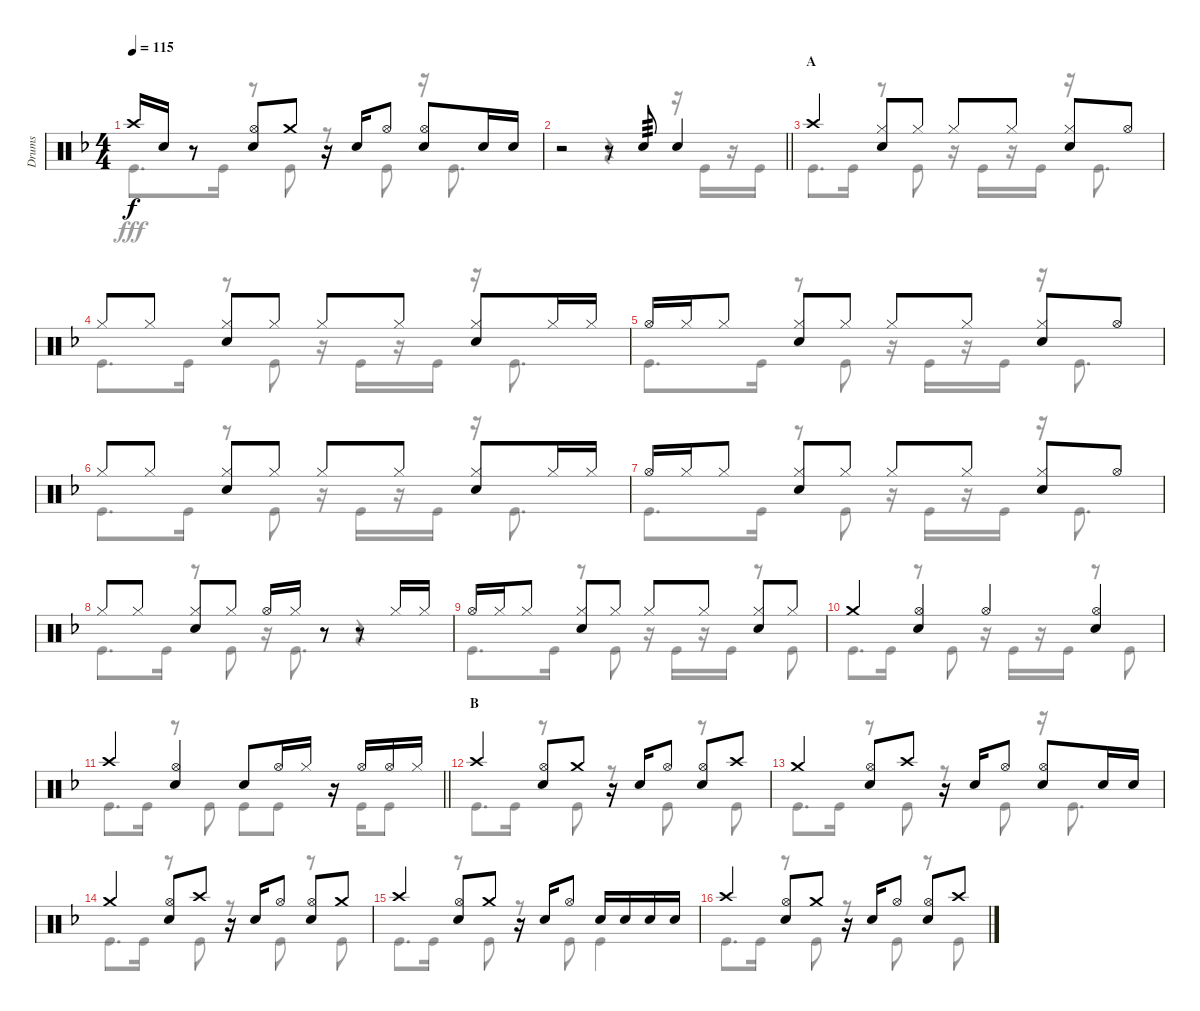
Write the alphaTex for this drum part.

\track ("Drums" "Drums") {instrument percussion}
\staff {score}
\articulation defaults
\voice
\ts (4 4)
\tempo 115
\clef neutral
\ks f "Crash high (hit)".16{dy f} "Snare (hit) 2".16
r.8 ("Hi-Hat (open)" "Snare (hit) 2").8 "Crash medium (hit)".8 r.16 "Snare (hit) 2".16 "Hi-Hat (open)".8 ("Hi-Hat (open)" "Snare (hit) 2").8 "Snare (hit) 2".16 "Snare (hit) 2".16 |
\barLineRight lightlight
r.2 r.8 "Snare (hit) 2".8{tp 3} "Snare (hit) 2".4 |
\section ("" "A")
"Crash high (hit)".4 ("Hi-Hat (closed)" "Snare (hit) 2").8 "Hi-Hat (closed)".8 "Hi-Hat (closed)".8 "Hi-Hat (closed)".8 ("Hi-Hat (closed)" "Snare (hit) 2").8 "Hi-Hat (open)".8 |
"Hi-Hat (closed)".8 "Hi-Hat (closed)".8 ("Hi-Hat (closed)" "Snare (hit) 2").8 "Hi-Hat (closed)".8 "Hi-Hat (closed)".8 "Hi-Hat (closed)".8 ("Hi-Hat (closed)" "Snare (hit) 2").8 "Hi-Hat (closed)".16 "Hi-Hat (closed)".16 |
"Hi-Hat (open)".16 "Hi-Hat (closed)".16 "Hi-Hat (closed)".8 ("Hi-Hat (closed)" "Snare (hit) 2").8 "Hi-Hat (closed)".8 "Hi-Hat (closed)".8 "Hi-Hat (closed)".8 ("Hi-Hat (closed)" "Snare (hit) 2").8 "Hi-Hat (open)".8 |
"Hi-Hat (closed)".8 "Hi-Hat (closed)".8 ("Hi-Hat (closed)" "Snare (hit) 2").8 "Hi-Hat (closed)".8 "Hi-Hat (closed)".8 "Hi-Hat (closed)".8 ("Hi-Hat (closed)" "Snare (hit) 2").8 "Hi-Hat (closed)".16 "Hi-Hat (closed)".16 |
"Hi-Hat (open)".16 "Hi-Hat (closed)".16 "Hi-Hat (closed)".8 ("Hi-Hat (closed)" "Snare (hit) 2").8 "Hi-Hat (closed)".8 "Hi-Hat (closed)".8 "Hi-Hat (closed)".8 ("Hi-Hat (closed)" "Snare (hit) 2").8 "Hi-Hat (open)".8 |
"Hi-Hat (closed)".8 "Hi-Hat (closed)".8 ("Hi-Hat (closed)" "Snare (hit) 2").8 "Hi-Hat (closed)".8 "Hi-Hat (open)".16 "Hi-Hat (closed)".16 r.8 r.8 "Hi-Hat (closed)".16 "Hi-Hat (closed)".16 |
"Hi-Hat (open)".16 "Hi-Hat (closed)".16 "Hi-Hat (closed)".8 ("Hi-Hat (closed)" "Snare (hit) 2").8 "Hi-Hat (closed)".8 "Hi-Hat (closed)".8 "Hi-Hat (closed)".8 ("Hi-Hat (closed)" "Snare (hit) 2").8 "Hi-Hat (closed)".8 |
"Crash medium (hit)".4 ("Hi-Hat (open)" "Snare (hit) 2").4 "Hi-Hat (open)".4 ("Hi-Hat (open)" "Snare (hit) 2").4 |
\barLineRight lightlight "Crash high (hit)".4
("Hi-Hat (open)" "Snare (hit) 2").4 "Snare (hit) 2".8 "Hi-Hat (open)".16 "Hi-Hat (closed)".16 r.16 "Hi-Hat (open)".16 "Hi-Hat (open)".16 "Hi-Hat (closed)".16 |
\section ("" "B")
"Crash high (hit)".4 ("Hi-Hat (open)" "Snare (hit) 2").8 "Crash medium (hit)".8 r.16 "Snare (hit) 2".16 "Hi-Hat (open)".8 ("Hi-Hat (open)" "Snare (hit) 2").8 "Crash high (hit)".8 |
"Crash medium (hit)".4 ("Hi-Hat (open)" "Snare (hit) 2").8 "Crash high (hit)".8 r.16 "Snare (hit) 2".16 "Hi-Hat (open)".8 ("Hi-Hat (open)" "Snare (hit) 2").8 "Snare (hit) 2".16 "Snare (hit) 2".16 |
"Crash medium (hit)".4 ("Hi-Hat (open)" "Snare (hit) 2").8 "Crash high (hit)".8 r.16 "Snare (hit) 2".16 "Hi-Hat (open)".8 ("Hi-Hat (open)" "Snare (hit) 2").8 "Crash medium (hit)".8 |
"Crash high (hit)".4 ("Hi-Hat (open)" "Snare (hit) 2").8 "Crash medium (hit)".8 r.16 "Snare (hit) 2".16 "Hi-Hat (open)".8 "Snare (hit) 2".16 "Snare (hit) 2".16 "Snare (hit) 2".16 "Snare (hit) 2".16 |
"Crash high (hit)".4 ("Hi-Hat (open)" "Snare (hit) 2").8 "Crash medium (hit)".8 r.16 "Snare (hit) 2".16 "Hi-Hat (open)".8 ("Hi-Hat (open)" "Snare (hit) 2").8 "Crash high (hit)".8
\voice
\clef neutral
\ottava regular
\simile none
\ks f "Kick (hit)".8{d dy fff} "Kick (hit)".16
r.8 "Kick (hit)".8 r.8 "Kick (hit)".8 r.16 "Kick (hit)".8{d} |
\barLineRight lightlight
r.2 r.4 r.16 "Kick (hit)".16 r.16 "Kick (hit)".16 |
"Kick (hit)".8{d} "Kick (hit)".16 r.8 "Kick (hit)".8 r.16 "Kick (hit)".16 r.16 "Kick (hit)".16 r.16 "Kick (hit)".8{d} |
"Kick (hit)".8{d} "Kick (hit)".16 r.8 "Kick (hit)".8 r.16 "Kick (hit)".16 r.16 "Kick (hit)".16 r.16 "Kick (hit)".8{d} |
"Kick (hit)".8{d} "Kick (hit)".16 r.8 "Kick (hit)".8 r.16 "Kick (hit)".16 r.16 "Kick (hit)".16 r.16 "Kick (hit)".8{d} |
"Kick (hit)".8{d} "Kick (hit)".16 r.8 "Kick (hit)".8 r.16 "Kick (hit)".16 r.16 "Kick (hit)".16 r.16 "Kick (hit)".8{d} |
"Kick (hit)".8{d} "Kick (hit)".16 r.8 "Kick (hit)".8 r.16 "Kick (hit)".16 r.16 "Kick (hit)".16 r.16 "Kick (hit)".8{d} |
"Kick (hit)".8{d} "Kick (hit)".16 r.8 "Kick (hit)".8 r.16 "Kick (hit)".8{d} r.4 |
"Kick (hit)".8{d} "Kick (hit)".16 r.8 "Kick (hit)".8 r.16 "Kick (hit)".16 r.16 "Kick (hit)".16 r.8 "Kick (hit)".8 |
"Kick (hit)".8{d} "Kick (hit)".16 r.8 "Kick (hit)".8 r.16 "Kick (hit)".16 r.16 "Kick (hit)".16 r.8 "Kick (hit)".8 |
\barLineRight lightlight "Kick (hit)".8{d} "Kick (hit)".16
r.8 "Kick (hit)".8 "Kick (hit)".8 "Kick (hit)".8 r.16 "Kick (hit)".16 "Kick (hit)".8 |
"Kick (hit)".8{d} "Kick (hit)".16 r.8 "Kick (hit)".8 r.8 "Kick (hit)".8 r.8 "Kick (hit)".8 |
"Kick (hit)".8{d} "Kick (hit)".16 r.8 "Kick (hit)".8 r.8 "Kick (hit)".8 r.16 "Kick (hit)".8{d} |
"Kick (hit)".8{d} "Kick (hit)".16 r.8 "Kick (hit)".8 r.8 "Kick (hit)".8 r.8 "Kick (hit)".8 |
"Kick (hit)".8{d} "Kick (hit)".16 r.8 "Kick (hit)".8 r.8 "Kick (hit)".8 "Kick (hit)".4 |
"Kick (hit)".8{d} "Kick (hit)".16 r.8 "Kick (hit)".8 r.8 "Kick (hit)".8 r.8 "Kick (hit)".8
